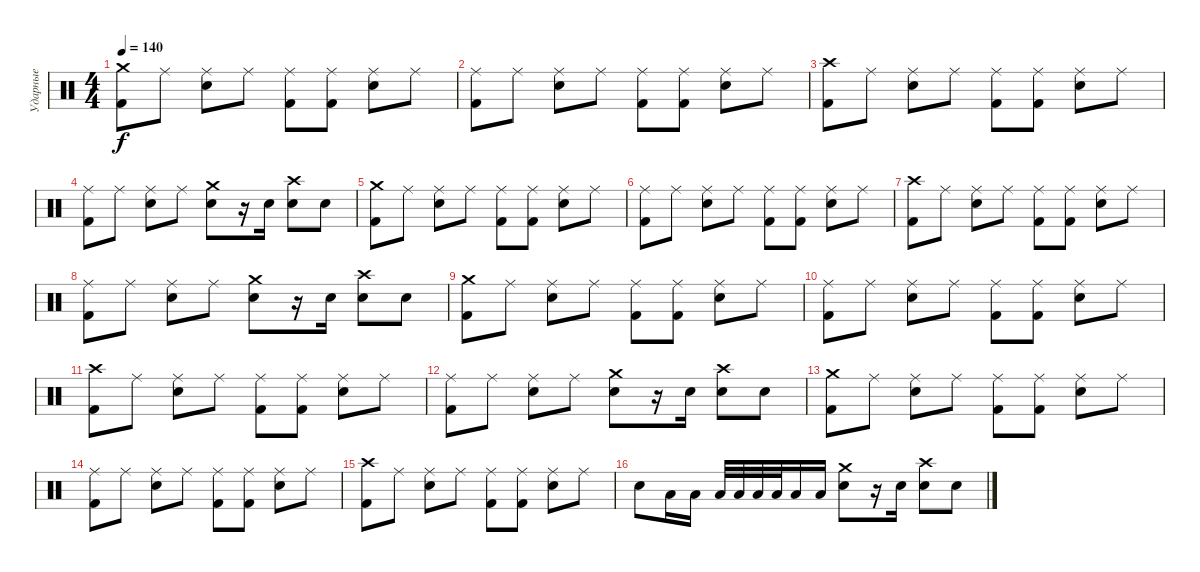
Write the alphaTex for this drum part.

\track ("Ударные" "Ударные") {instrument percussion}
\staff {score}
\articulation defaults
\ts (4 4)
\tempo 140
\clef neutral
\ks c
("Crash medium (hit)" "Kick (hit) 2").8{dy f} "Ride (middle)".8 ("Ride (middle)" "Electric Snare (hit)").8 "Ride (middle)".8 ("Ride (middle)" "Kick (hit) 2").8 ("Ride (middle)" "Kick (hit) 2").8 ("Ride (middle)" "Electric Snare (hit)").8 "Ride (middle)".8 |
("Ride (middle)" "Kick (hit) 2").8 "Ride (middle)".8 ("Ride (middle)" "Electric Snare (hit)").8 "Ride (middle)".8 ("Ride (middle)" "Kick (hit) 2").8 ("Ride (middle)" "Kick (hit) 2").8 ("Ride (middle)" "Electric Snare (hit)").8 "Ride (middle)".8 |
("Crash high (hit)" "Kick (hit) 2").8 "Ride (middle)".8 ("Ride (middle)" "Electric Snare (hit)").8 "Ride (middle)".8 ("Ride (middle)" "Kick (hit) 2").8 ("Ride (middle)" "Kick (hit) 2").8 ("Ride (middle)" "Electric Snare (hit)").8 "Ride (middle)".8 |
("Ride (middle)" "Kick (hit) 2").8 "Ride (middle)".8 ("Ride (middle)" "Electric Snare (hit)").8 "Ride (middle)".8 ("Crash medium (hit)" "Electric Snare (hit)").8 r.16 "Electric Snare (hit)".16 ("Crash high (hit)" "Electric Snare (hit)").8 "Electric Snare (hit)".8 |
("Crash medium (hit)" "Kick (hit) 2").8 "Ride (middle)".8 ("Ride (middle)" "Electric Snare (hit)").8 "Ride (middle)".8 ("Ride (middle)" "Kick (hit) 2").8 ("Ride (middle)" "Kick (hit) 2").8 ("Ride (middle)" "Electric Snare (hit)").8 "Ride (middle)".8 |
("Ride (middle)" "Kick (hit) 2").8 "Ride (middle)".8 ("Ride (middle)" "Electric Snare (hit)").8 "Ride (middle)".8 ("Ride (middle)" "Kick (hit) 2").8 ("Ride (middle)" "Kick (hit) 2").8 ("Ride (middle)" "Electric Snare (hit)").8 "Ride (middle)".8 |
("Crash high (hit)" "Kick (hit) 2").8 "Ride (middle)".8 ("Ride (middle)" "Electric Snare (hit)").8 "Ride (middle)".8 ("Ride (middle)" "Kick (hit) 2").8 ("Ride (middle)" "Kick (hit) 2").8 ("Ride (middle)" "Electric Snare (hit)").8 "Ride (middle)".8 |
("Ride (middle)" "Kick (hit) 2").8 "Ride (middle)".8 ("Ride (middle)" "Electric Snare (hit)").8 "Ride (middle)".8 ("Crash medium (hit)" "Electric Snare (hit)").8 r.16 "Electric Snare (hit)".16 ("Crash high (hit)" "Electric Snare (hit)").8 "Electric Snare (hit)".8 |
("Crash medium (hit)" "Kick (hit) 2").8 "Ride (middle)".8 ("Ride (middle)" "Electric Snare (hit)").8 "Ride (middle)".8 ("Ride (middle)" "Kick (hit) 2").8 ("Ride (middle)" "Kick (hit) 2").8 ("Ride (middle)" "Electric Snare (hit)").8 "Ride (middle)".8 |
("Ride (middle)" "Kick (hit) 2").8 "Ride (middle)".8 ("Ride (middle)" "Electric Snare (hit)").8 "Ride (middle)".8 ("Ride (middle)" "Kick (hit) 2").8 ("Ride (middle)" "Kick (hit) 2").8 ("Ride (middle)" "Electric Snare (hit)").8 "Ride (middle)".8 |
("Crash high (hit)" "Kick (hit) 2").8 "Ride (middle)".8 ("Ride (middle)" "Electric Snare (hit)").8 "Ride (middle)".8 ("Ride (middle)" "Kick (hit) 2").8 ("Ride (middle)" "Kick (hit) 2").8 ("Ride (middle)" "Electric Snare (hit)").8 "Ride (middle)".8 |
("Ride (middle)" "Kick (hit) 2").8 "Ride (middle)".8 ("Ride (middle)" "Electric Snare (hit)").8 "Ride (middle)".8 ("Crash medium (hit)" "Electric Snare (hit)").8 r.16 "Electric Snare (hit)".16 ("Crash high (hit)" "Electric Snare (hit)").8 "Electric Snare (hit)".8 |
("Crash medium (hit)" "Kick (hit) 2").8 "Ride (middle)".8 ("Ride (middle)" "Electric Snare (hit)").8 "Ride (middle)".8 ("Ride (middle)" "Kick (hit) 2").8 ("Ride (middle)" "Kick (hit) 2").8 ("Ride (middle)" "Electric Snare (hit)").8 "Ride (middle)".8 |
("Ride (middle)" "Kick (hit) 2").8 "Ride (middle)".8 ("Ride (middle)" "Electric Snare (hit)").8 "Ride (middle)".8 ("Ride (middle)" "Kick (hit) 2").8 ("Ride (middle)" "Kick (hit) 2").8 ("Ride (middle)" "Electric Snare (hit)").8 "Ride (middle)".8 |
("Crash high (hit)" "Kick (hit) 2").8 "Ride (middle)".8 ("Ride (middle)" "Electric Snare (hit)").8 "Ride (middle)".8 ("Ride (middle)" "Kick (hit) 2").8 ("Ride (middle)" "Kick (hit) 2").8 ("Ride (middle)" "Electric Snare (hit)").8 "Ride (middle)".8 |
"Electric Snare (hit)".8 "Low Tom (hit)".16 "Low Tom (hit)".16 "Low Tom (hit)".32 "Low Tom (hit)".32 "Low Tom (hit)".32 "Low Tom (hit)".32 "Low Tom (hit)".16 "Low Tom (hit)".16 ("Crash medium (hit)" "Electric Snare (hit)").8 r.16 "Electric Snare (hit)".16 ("Crash high (hit)" "Electric Snare (hit)").8 "Electric Snare (hit)".8
